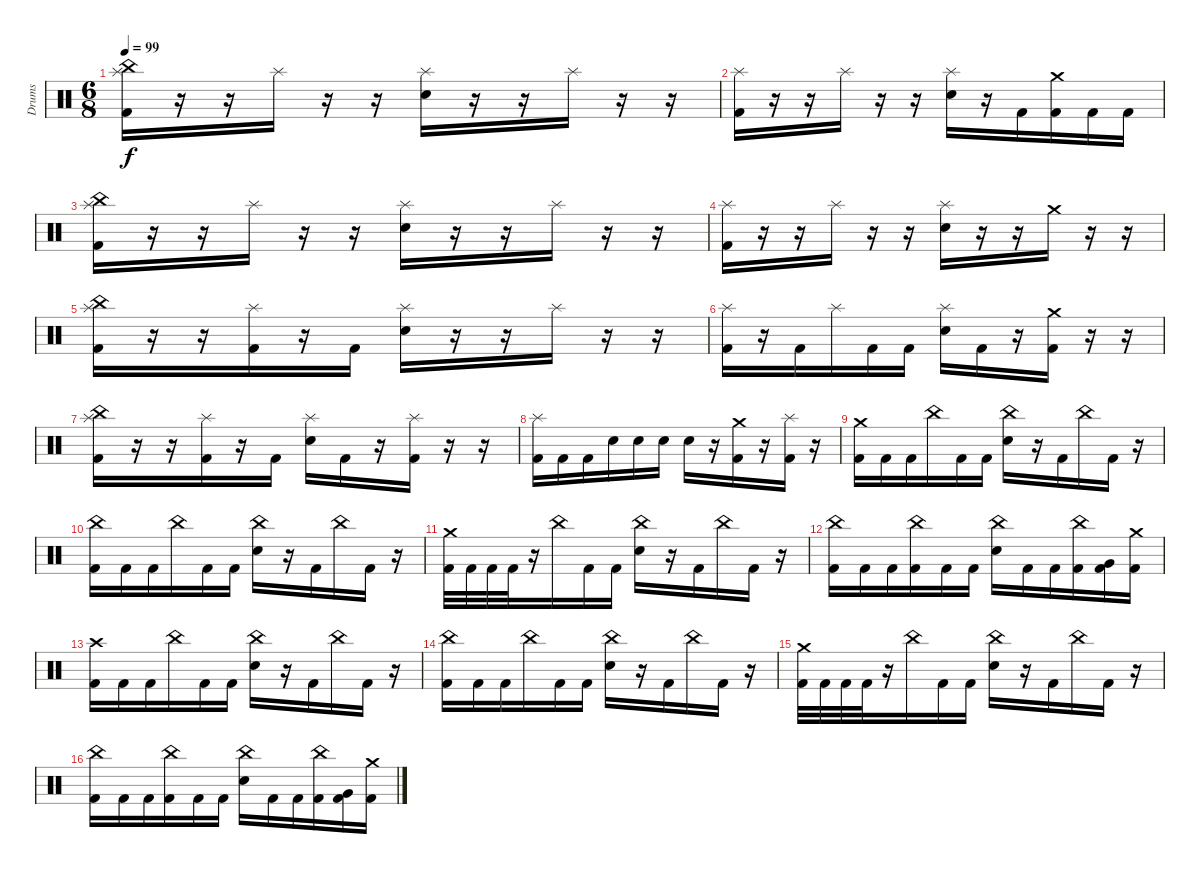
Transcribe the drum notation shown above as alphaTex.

\track ("Drums" "Drums") {instrument percussion}
\staff {score}
\articulation defaults
\ts (6 8)
\tempo 99
\clef neutral
\ks c
("China (hit)" "Splash (hit)" "Kick (hit) 2").16{dy f} r.16 r.16 "Splash (hit)".16 r.16 r.16 ("Splash (hit)" "Electric Snare (hit)").16 r.16 r.16 "Splash (hit)".16 r.16 r.16 |
("Splash (hit)" "Kick (hit) 2").16 r.16 r.16 "Splash (hit)".16 r.16 r.16 ("Splash (hit)" "Electric Snare (hit)").16 r.16 "Kick (hit) 2".16 ("Crash medium (hit)" "Kick (hit) 2").16 "Kick (hit) 2".16 "Kick (hit) 2".16 |
("China (hit)" "Splash (hit)" "Kick (hit) 2").16 r.16 r.16 "Splash (hit)".16 r.16 r.16 ("Splash (hit)" "Electric Snare (hit)").16 r.16 r.16 "Splash (hit)".16 r.16 r.16 |
("Splash (hit)" "Kick (hit) 2").16 r.16 r.16 "Splash (hit)".16 r.16 r.16 ("Splash (hit)" "Electric Snare (hit)").16 r.16 r.16 "Crash medium (hit)".16 r.16 r.16 |
("Splash (hit)" "China (hit)" "Kick (hit) 2").16 r.16 r.16 ("Splash (hit)" "Kick (hit) 2").16 r.16 "Kick (hit) 2".16 ("Splash (hit)" "Electric Snare (hit)").16 r.16 r.16 "Splash (hit)".16 r.16 r.16 |
("Splash (hit)" "Kick (hit) 2").16 r.16 "Kick (hit) 2".16 "Splash (hit)".16 "Kick (hit) 2".16 "Kick (hit) 2".16 ("Splash (hit)" "Electric Snare (hit)").16 "Kick (hit) 2".16 r.16 ("Crash medium (hit)" "Kick (hit) 2").16 r.16 r.16 |
("Splash (hit)" "China (hit)" "Kick (hit) 2").16 r.16 r.16 ("Splash (hit)" "Kick (hit) 2").16 r.16 "Kick (hit) 2".16 ("Splash (hit)" "Electric Snare (hit)").16 "Kick (hit) 2".16 r.16 ("Splash (hit)" "Kick (hit) 2").16 r.16 r.16 |
("Splash (hit)" "Kick (hit) 2").16 "Kick (hit) 2".16 "Kick (hit) 2".16 "Electric Snare (hit)".16 "Electric Snare (hit)".16 "Electric Snare (hit)".16 "Electric Snare (hit)".16 r.16 ("Crash medium (hit)" "Kick (hit) 2").16 r.16 ("Splash (hit)" "Kick (hit) 2").16 r.16 |
("Crash medium (hit)" "Kick (hit) 2").16 "Kick (hit) 2".16 "Kick (hit) 2".16 "China (hit)".16 "Kick (hit) 2".16 "Kick (hit) 2".16 ("China (hit)" "Electric Snare (hit)").16 r.16 "Kick (hit) 2".16 "China (hit)".16 "Kick (hit) 2".16 r.16 |
("China (hit)" "Kick (hit) 2").16 "Kick (hit) 2".16 "Kick (hit) 2".16 "China (hit)".16 "Kick (hit) 2".16 "Kick (hit) 2".16 ("China (hit)" "Electric Snare (hit)").16 r.16 "Kick (hit) 2".16 "China (hit)".16 "Kick (hit) 2".16 r.16 |
("Crash medium (hit)" "Kick (hit) 2").32 "Kick (hit) 2".32 "Kick (hit) 2".32 "Kick (hit) 2".32 r.16 "China (hit)".16 "Kick (hit) 2".16 "Kick (hit) 2".16 ("China (hit)" "Electric Snare (hit)").16 r.16 "Kick (hit) 2".16 "China (hit)".16 "Kick (hit) 2".16 r.16 |
("China (hit)" "Kick (hit) 2").16 "Kick (hit) 2".16 "Kick (hit) 2".16 ("China (hit)" "Kick (hit) 2").16 "Kick (hit) 2".16 "Kick (hit) 2".16 ("China (hit)" "Electric Snare (hit)").16 "Kick (hit) 2".16 "Kick (hit) 2".16 ("China (hit)" "Kick (hit) 2").16 ("Very Low Tom (hit)" "Kick (hit) 2").16 ("Crash medium (hit)" "Kick (hit) 2").16 |
("Crash high (hit)" "Kick (hit) 2").16 "Kick (hit) 2".16 "Kick (hit) 2".16 "China (hit)".16 "Kick (hit) 2".16 "Kick (hit) 2".16 ("China (hit)" "Electric Snare (hit)").16 r.16 "Kick (hit) 2".16 "China (hit)".16 "Kick (hit) 2".16 r.16 |
("China (hit)" "Kick (hit) 2").16 "Kick (hit) 2".16 "Kick (hit) 2".16 "China (hit)".16 "Kick (hit) 2".16 "Kick (hit) 2".16 ("China (hit)" "Electric Snare (hit)").16 r.16 "Kick (hit) 2".16 "China (hit)".16 "Kick (hit) 2".16 r.16 |
("Crash medium (hit)" "Kick (hit) 2").32 "Kick (hit) 2".32 "Kick (hit) 2".32 "Kick (hit) 2".32 r.16 "China (hit)".16 "Kick (hit) 2".16 "Kick (hit) 2".16 ("China (hit)" "Electric Snare (hit)").16 r.16 "Kick (hit) 2".16 "China (hit)".16 "Kick (hit) 2".16 r.16 |
("China (hit)" "Kick (hit) 2").16 "Kick (hit) 2".16 "Kick (hit) 2".16 ("China (hit)" "Kick (hit) 2").16 "Kick (hit) 2".16 "Kick (hit) 2".16 ("China (hit)" "Electric Snare (hit)").16 "Kick (hit) 2".16 "Kick (hit) 2".16 ("China (hit)" "Kick (hit) 2").16 ("Very Low Tom (hit)" "Kick (hit) 2").16 ("Crash medium (hit)" "Kick (hit) 2").16
